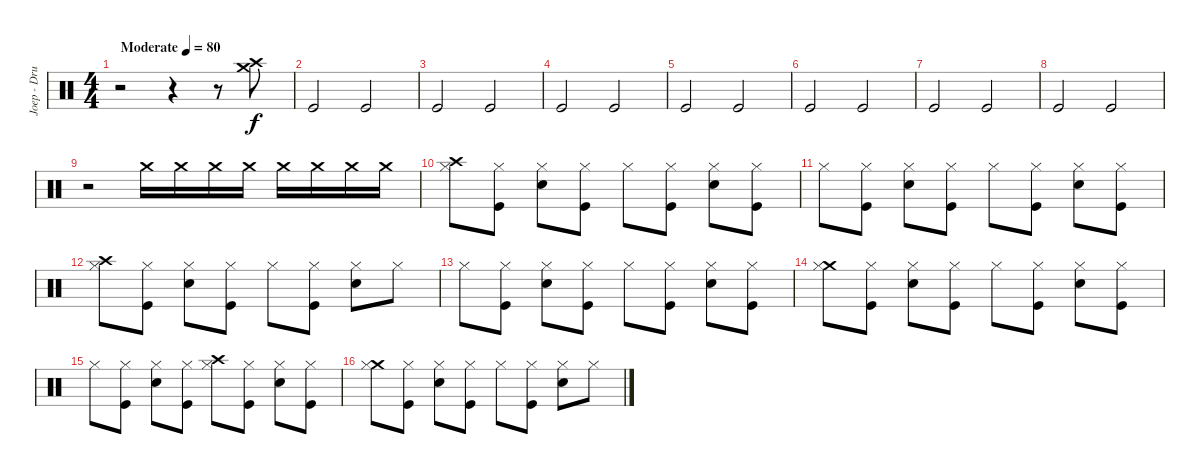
\track ("Joep - Drums" "Joep - Dru") {instrument percussion}
\staff {score}
\articulation defaults
\ts (4 4)
\tempo (80 "Moderate")
\clef neutral
\ks c
r.2{dy f} r.4 r.8 ("Crash medium (hit)" "Crash high (hit)").8 |
"Kick (hit)".2 "Kick (hit)".2 |
"Kick (hit)".2 "Kick (hit)".2 |
"Kick (hit)".2 "Kick (hit)".2 |
"Kick (hit)".2 "Kick (hit)".2 |
"Kick (hit)".2 "Kick (hit)".2 |
"Kick (hit)".2 "Kick (hit)".2 |
"Kick (hit)".2 "Kick (hit)".2 |
r.2 "Crash medium (hit)".16 "Crash medium (hit)".16 "Crash medium (hit)".16 "Crash medium (hit)".16 "Crash medium (hit)".16 "Crash medium (hit)".16 "Crash medium (hit)".16 "Crash medium (hit)".16 |
("Crash high (hit)" "Hi-Hat (closed)").8 ("Hi-Hat (closed)" "Kick (hit)").8 ("Hi-Hat (closed)" "Electric Snare (hit)").8 ("Hi-Hat (closed)" "Kick (hit)").8 "Hi-Hat (closed)".8 ("Hi-Hat (closed)" "Kick (hit)").8 ("Hi-Hat (closed)" "Electric Snare (hit)").8 ("Hi-Hat (closed)" "Kick (hit)").8 |
"Hi-Hat (closed)".8 ("Hi-Hat (closed)" "Kick (hit)").8 ("Hi-Hat (closed)" "Electric Snare (hit)").8 ("Hi-Hat (closed)" "Kick (hit)").8 "Hi-Hat (closed)".8 ("Hi-Hat (closed)" "Kick (hit)").8 ("Hi-Hat (closed)" "Electric Snare (hit)").8 ("Hi-Hat (closed)" "Kick (hit)").8 |
("Crash high (hit)" "Hi-Hat (closed)").8 ("Hi-Hat (closed)" "Kick (hit)").8 ("Hi-Hat (closed)" "Electric Snare (hit)").8 ("Hi-Hat (closed)" "Kick (hit)").8 "Hi-Hat (closed)".8 ("Hi-Hat (closed)" "Kick (hit)").8 ("Hi-Hat (closed)" "Electric Snare (hit)").8 "Hi-Hat (closed)".8 |
"Hi-Hat (closed)".8 ("Hi-Hat (closed)" "Kick (hit)").8 ("Hi-Hat (closed)" "Electric Snare (hit)").8 ("Hi-Hat (closed)" "Kick (hit)").8 "Hi-Hat (closed)".8 ("Hi-Hat (closed)" "Kick (hit)").8 ("Hi-Hat (closed)" "Electric Snare (hit)").8 ("Hi-Hat (closed)" "Kick (hit)").8 |
("Crash medium (hit)" "Hi-Hat (closed)").8 ("Hi-Hat (closed)" "Kick (hit)").8 ("Hi-Hat (closed)" "Electric Snare (hit)").8 ("Hi-Hat (closed)" "Kick (hit)").8 "Hi-Hat (closed)".8 ("Hi-Hat (closed)" "Kick (hit)").8 ("Hi-Hat (closed)" "Electric Snare (hit)").8 ("Hi-Hat (closed)" "Kick (hit)").8 |
"Hi-Hat (closed)".8 ("Hi-Hat (closed)" "Kick (hit)").8 ("Hi-Hat (closed)" "Electric Snare (hit)").8 ("Hi-Hat (closed)" "Kick (hit)").8 ("Crash high (hit)" "Hi-Hat (closed)").8 ("Hi-Hat (closed)" "Kick (hit)").8 ("Hi-Hat (closed)" "Electric Snare (hit)").8 ("Hi-Hat (closed)" "Kick (hit)").8 |
("Crash medium (hit)" "Hi-Hat (closed)").8 ("Hi-Hat (closed)" "Kick (hit)").8 ("Hi-Hat (closed)" "Electric Snare (hit)").8 ("Hi-Hat (closed)" "Kick (hit)").8 "Hi-Hat (closed)".8 ("Hi-Hat (closed)" "Kick (hit)").8 ("Hi-Hat (closed)" "Electric Snare (hit)").8 "Hi-Hat (closed)".8
